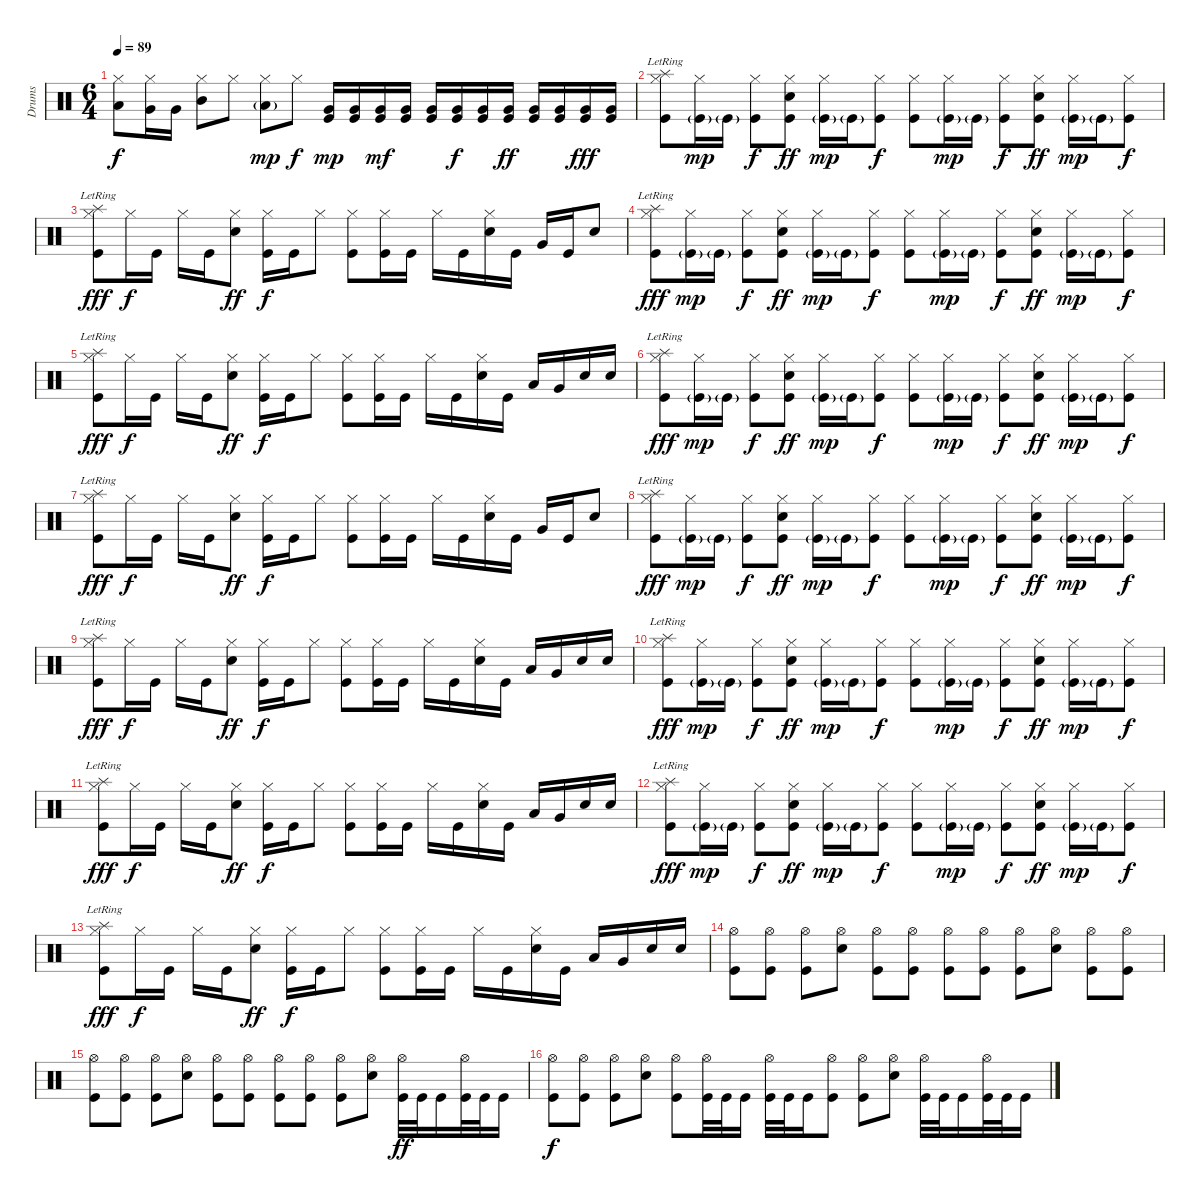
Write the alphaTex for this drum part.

\track ("Drums" "Drums") {instrument percussion}
\staff {score}
\articulation defaults
\ts (6 4)
\tempo 89
\clef neutral
\ks c
("Low Tom (hit)" "Hi-Hat (closed)").8{dy f} ("Very Low Tom (hit)" "Hi-Hat (closed)").16 "Very Low Tom (hit)".16 ("Mid Tom (hit)" "Hi-Hat (closed)").8 "Hi-Hat (closed)".8 ("Low Tom (hit)"{g} "Hi-Hat (closed)").8{dy mp} "Hi-Hat (closed)".8{dy f} ("Very Low Tom (hit)" "Kick (hit)").16{dy mp} ("Very Low Tom (hit)" "Kick (hit)").16 ("Very Low Tom (hit)" "Kick (hit)").16{dy mf} ("Very Low Tom (hit)" "Kick (hit)").16 ("Very Low Tom (hit)" "Kick (hit)").16 ("Very Low Tom (hit)" "Kick (hit)").16{dy f} ("Very Low Tom (hit)" "Kick (hit)").16 ("Very Low Tom (hit)" "Kick (hit)").16{dy ff} ("Very Low Tom (hit)" "Kick (hit)").16 ("Very Low Tom (hit)" "Kick (hit)").16 ("Very Low Tom (hit)" "Kick (hit)").16{dy fff} ("Very Low Tom (hit)" "Kick (hit)").16 |
("Splash (hit)"{lr} "Hi-Hat (closed)" "Kick (hit)").8 ("Hi-Hat (closed)" "Kick (hit)"{g}).16{dy mp} "Kick (hit)"{g}.16 ("Hi-Hat (closed)" "Kick (hit)").8{dy f} ("Hi-Hat (closed)" "Snare (hit) 2" "Kick (hit)").8{dy ff} ("Hi-Hat (closed)" "Kick (hit)"{g}).16{dy mp} "Kick (hit)"{g}.16 ("Hi-Hat (closed)" "Kick (hit)").8{dy f} ("Hi-Hat (closed)" "Kick (hit)").8 ("Hi-Hat (closed)" "Kick (hit)"{g}).16{dy mp} "Kick (hit)"{g}.16 ("Hi-Hat (closed)" "Kick (hit)").8{dy f} ("Hi-Hat (closed)" "Snare (hit) 2" "Kick (hit)").8{dy ff} ("Hi-Hat (closed)" "Kick (hit)"{g}).16{dy mp} "Kick (hit)"{g}.16 ("Hi-Hat (closed)" "Kick (hit)").8{dy f} |
("Splash (hit)"{lr} "Hi-Hat (closed)" "Kick (hit)").8{dy fff} "Hi-Hat (closed)".16{dy f} "Kick (hit)".16 "Hi-Hat (closed)".16 "Kick (hit)".16 ("Hi-Hat (closed)" "Snare (hit) 2").8{dy ff} ("Hi-Hat (closed)" "Kick (hit)").16{dy f} "Kick (hit)".16 "Hi-Hat (closed)".8 ("Hi-Hat (closed)" "Kick (hit)").8 ("Hi-Hat (closed)" "Kick (hit)").16 "Kick (hit)".16 "Hi-Hat (closed)".16 "Kick (hit)".16 ("Hi-Hat (closed)" "Snare (hit) 2").16 "Kick (hit)".16 "Very Low Tom (hit)".16 "Kick (hit)".16 "Snare (hit) 2".8 |
("Splash (hit)"{lr} "Hi-Hat (closed)" "Kick (hit)").8{dy fff} ("Hi-Hat (closed)" "Kick (hit)"{g}).16{dy mp} "Kick (hit)"{g}.16 ("Hi-Hat (closed)" "Kick (hit)").8{dy f} ("Hi-Hat (closed)" "Snare (hit) 2" "Kick (hit)").8{dy ff} ("Hi-Hat (closed)" "Kick (hit)"{g}).16{dy mp} "Kick (hit)"{g}.16 ("Hi-Hat (closed)" "Kick (hit)").8{dy f} ("Hi-Hat (closed)" "Kick (hit)").8 ("Hi-Hat (closed)" "Kick (hit)"{g}).16{dy mp} "Kick (hit)"{g}.16 ("Hi-Hat (closed)" "Kick (hit)").8{dy f} ("Hi-Hat (closed)" "Snare (hit) 2" "Kick (hit)").8{dy ff} ("Hi-Hat (closed)" "Kick (hit)"{g}).16{dy mp} "Kick (hit)"{g}.16 ("Hi-Hat (closed)" "Kick (hit)").8{dy f} |
("Splash (hit)"{lr} "Hi-Hat (closed)" "Kick (hit)").8{dy fff} "Hi-Hat (closed)".16{dy f} "Kick (hit)".16 "Hi-Hat (closed)".16 "Kick (hit)".16 ("Hi-Hat (closed)" "Snare (hit) 2").8{dy ff} ("Hi-Hat (closed)" "Kick (hit)").16{dy f} "Kick (hit)".16 "Hi-Hat (closed)".8 ("Hi-Hat (closed)" "Kick (hit)").8 ("Hi-Hat (closed)" "Kick (hit)").16 "Kick (hit)".16 "Hi-Hat (closed)".16 "Kick (hit)".16 ("Hi-Hat (closed)" "Snare (hit) 2").16 "Kick (hit)".16 "Low Tom (hit)".16 "Very Low Tom (hit)".16 "Snare (hit) 2".16 "Snare (hit) 2".16 |
("Splash (hit)"{lr} "Hi-Hat (closed)" "Kick (hit)").8{dy fff} ("Hi-Hat (closed)" "Kick (hit)"{g}).16{dy mp} "Kick (hit)"{g}.16 ("Hi-Hat (closed)" "Kick (hit)").8{dy f} ("Hi-Hat (closed)" "Snare (hit) 2" "Kick (hit)").8{dy ff} ("Hi-Hat (closed)" "Kick (hit)"{g}).16{dy mp} "Kick (hit)"{g}.16 ("Hi-Hat (closed)" "Kick (hit)").8{dy f} ("Hi-Hat (closed)" "Kick (hit)").8 ("Hi-Hat (closed)" "Kick (hit)"{g}).16{dy mp} "Kick (hit)"{g}.16 ("Hi-Hat (closed)" "Kick (hit)").8{dy f} ("Hi-Hat (closed)" "Snare (hit) 2" "Kick (hit)").8{dy ff} ("Hi-Hat (closed)" "Kick (hit)"{g}).16{dy mp} "Kick (hit)"{g}.16 ("Hi-Hat (closed)" "Kick (hit)").8{dy f} |
("Splash (hit)"{lr} "Hi-Hat (closed)" "Kick (hit)").8{dy fff} "Hi-Hat (closed)".16{dy f} "Kick (hit)".16 "Hi-Hat (closed)".16 "Kick (hit)".16 ("Hi-Hat (closed)" "Snare (hit) 2").8{dy ff} ("Hi-Hat (closed)" "Kick (hit)").16{dy f} "Kick (hit)".16 "Hi-Hat (closed)".8 ("Hi-Hat (closed)" "Kick (hit)").8 ("Hi-Hat (closed)" "Kick (hit)").16 "Kick (hit)".16 "Hi-Hat (closed)".16 "Kick (hit)".16 ("Hi-Hat (closed)" "Snare (hit) 2").16 "Kick (hit)".16 "Very Low Tom (hit)".16 "Kick (hit)".16 "Snare (hit) 2".8 |
("Splash (hit)"{lr} "Hi-Hat (closed)" "Kick (hit)").8{dy fff} ("Hi-Hat (closed)" "Kick (hit)"{g}).16{dy mp} "Kick (hit)"{g}.16 ("Hi-Hat (closed)" "Kick (hit)").8{dy f} ("Hi-Hat (closed)" "Snare (hit) 2" "Kick (hit)").8{dy ff} ("Hi-Hat (closed)" "Kick (hit)"{g}).16{dy mp} "Kick (hit)"{g}.16 ("Hi-Hat (closed)" "Kick (hit)").8{dy f} ("Hi-Hat (closed)" "Kick (hit)").8 ("Hi-Hat (closed)" "Kick (hit)"{g}).16{dy mp} "Kick (hit)"{g}.16 ("Hi-Hat (closed)" "Kick (hit)").8{dy f} ("Hi-Hat (closed)" "Snare (hit) 2" "Kick (hit)").8{dy ff} ("Hi-Hat (closed)" "Kick (hit)"{g}).16{dy mp} "Kick (hit)"{g}.16 ("Hi-Hat (closed)" "Kick (hit)").8{dy f} |
("Splash (hit)"{lr} "Hi-Hat (closed)" "Kick (hit)").8{dy fff} "Hi-Hat (closed)".16{dy f} "Kick (hit)".16 "Hi-Hat (closed)".16 "Kick (hit)".16 ("Hi-Hat (closed)" "Snare (hit) 2").8{dy ff} ("Hi-Hat (closed)" "Kick (hit)").16{dy f} "Kick (hit)".16 "Hi-Hat (closed)".8 ("Hi-Hat (closed)" "Kick (hit)").8 ("Hi-Hat (closed)" "Kick (hit)").16 "Kick (hit)".16 "Hi-Hat (closed)".16 "Kick (hit)".16 ("Hi-Hat (closed)" "Snare (hit) 2").16 "Kick (hit)".16 "Low Tom (hit)".16 "Very Low Tom (hit)".16 "Snare (hit) 2".16 "Snare (hit) 2".16 |
("Splash (hit)"{lr} "Hi-Hat (closed)" "Kick (hit)").8{dy fff} ("Hi-Hat (closed)" "Kick (hit)"{g}).16{dy mp} "Kick (hit)"{g}.16 ("Hi-Hat (closed)" "Kick (hit)").8{dy f} ("Hi-Hat (closed)" "Snare (hit) 2" "Kick (hit)").8{dy ff} ("Hi-Hat (closed)" "Kick (hit)"{g}).16{dy mp} "Kick (hit)"{g}.16 ("Hi-Hat (closed)" "Kick (hit)").8{dy f} ("Hi-Hat (closed)" "Kick (hit)").8 ("Hi-Hat (closed)" "Kick (hit)"{g}).16{dy mp} "Kick (hit)"{g}.16 ("Hi-Hat (closed)" "Kick (hit)").8{dy f} ("Hi-Hat (closed)" "Snare (hit) 2" "Kick (hit)").8{dy ff} ("Hi-Hat (closed)" "Kick (hit)"{g}).16{dy mp} "Kick (hit)"{g}.16 ("Hi-Hat (closed)" "Kick (hit)").8{dy f} |
("Splash (hit)"{lr} "Hi-Hat (closed)" "Kick (hit)").8{dy fff} "Hi-Hat (closed)".16{dy f} "Kick (hit)".16 "Hi-Hat (closed)".16 "Kick (hit)".16 ("Hi-Hat (closed)" "Snare (hit) 2").8{dy ff} ("Hi-Hat (closed)" "Kick (hit)").16{dy f} "Kick (hit)".16 "Hi-Hat (closed)".8 ("Hi-Hat (closed)" "Kick (hit)").8 ("Hi-Hat (closed)" "Kick (hit)").16 "Kick (hit)".16 "Hi-Hat (closed)".16 "Kick (hit)".16 ("Hi-Hat (closed)" "Snare (hit) 2").16 "Kick (hit)".16 "Low Tom (hit)".16 "Very Low Tom (hit)".16 "Snare (hit) 2".16 "Snare (hit) 2".16 |
("Splash (hit)"{lr} "Hi-Hat (closed)" "Kick (hit)").8{dy fff} ("Hi-Hat (closed)" "Kick (hit)"{g}).16{dy mp} "Kick (hit)"{g}.16 ("Hi-Hat (closed)" "Kick (hit)").8{dy f} ("Hi-Hat (closed)" "Snare (hit) 2" "Kick (hit)").8{dy ff} ("Hi-Hat (closed)" "Kick (hit)"{g}).16{dy mp} "Kick (hit)"{g}.16 ("Hi-Hat (closed)" "Kick (hit)").8{dy f} ("Hi-Hat (closed)" "Kick (hit)").8 ("Hi-Hat (closed)" "Kick (hit)"{g}).16{dy mp} "Kick (hit)"{g}.16 ("Hi-Hat (closed)" "Kick (hit)").8{dy f} ("Hi-Hat (closed)" "Snare (hit) 2" "Kick (hit)").8{dy ff} ("Hi-Hat (closed)" "Kick (hit)"{g}).16{dy mp} "Kick (hit)"{g}.16 ("Hi-Hat (closed)" "Kick (hit)").8{dy f} |
("Splash (hit)"{lr} "Hi-Hat (closed)" "Kick (hit)").8{dy fff} "Hi-Hat (closed)".16{dy f} "Kick (hit)".16 "Hi-Hat (closed)".16 "Kick (hit)".16 ("Hi-Hat (closed)" "Snare (hit) 2").8{dy ff} ("Hi-Hat (closed)" "Kick (hit)").16{dy f} "Kick (hit)".16 "Hi-Hat (closed)".8 ("Hi-Hat (closed)" "Kick (hit)").8 ("Hi-Hat (closed)" "Kick (hit)").16 "Kick (hit)".16 "Hi-Hat (closed)".16 "Kick (hit)".16 ("Hi-Hat (closed)" "Snare (hit) 2").16 "Kick (hit)".16 "Low Tom (hit)".16 "Very Low Tom (hit)".16 "Snare (hit) 2".16 "Snare (hit) 2".16 |
("Hi-Hat (open)" "Kick (hit)").8 ("Hi-Hat (open)" "Kick (hit)").8 ("Hi-Hat (open)" "Kick (hit)").8 ("Hi-Hat (open)" "Snare (hit) 2").8 ("Hi-Hat (open)" "Kick (hit)").8 ("Hi-Hat (open)" "Kick (hit)").8 ("Hi-Hat (open)" "Kick (hit)").8 ("Hi-Hat (open)" "Kick (hit)").8 ("Hi-Hat (open)" "Kick (hit)").8 ("Hi-Hat (open)" "Snare (hit) 2").8 ("Hi-Hat (open)" "Kick (hit)").8 ("Hi-Hat (open)" "Kick (hit)").8 |
("Hi-Hat (open)" "Kick (hit)").8 ("Hi-Hat (open)" "Kick (hit)").8 ("Hi-Hat (open)" "Kick (hit)").8 ("Hi-Hat (open)" "Snare (hit) 2").8 ("Hi-Hat (open)" "Kick (hit)").8 ("Hi-Hat (open)" "Kick (hit)").8 ("Hi-Hat (open)" "Kick (hit)").8 ("Hi-Hat (open)" "Kick (hit)").8 ("Hi-Hat (open)" "Kick (hit)").8 ("Hi-Hat (open)" "Snare (hit) 2").8 ("Hi-Hat (open)" "Kick (hit)").32{dy ff} "Kick (hit)".32 "Kick (hit)".16 ("Hi-Hat (open)" "Kick (hit)").32 "Kick (hit)".32 "Kick (hit)".16 |
("Hi-Hat (open)" "Kick (hit)").8{dy f} ("Hi-Hat (open)" "Kick (hit)").8 ("Hi-Hat (open)" "Kick (hit)").8 ("Hi-Hat (open)" "Snare (hit) 2").8 ("Hi-Hat (open)" "Kick (hit)").8 ("Hi-Hat (open)" "Kick (hit)").32 "Kick (hit)".32 "Kick (hit)".16 ("Hi-Hat (open)" "Kick (hit)").32 "Kick (hit)".32 "Kick (hit)".16 ("Hi-Hat (open)" "Kick (hit)").8 ("Hi-Hat (open)" "Kick (hit)").8 ("Hi-Hat (open)" "Snare (hit) 2").8 ("Hi-Hat (open)" "Kick (hit)").32 "Kick (hit)".32 "Kick (hit)".16 ("Hi-Hat (open)" "Kick (hit)").32 "Kick (hit)".32 "Kick (hit)".16
